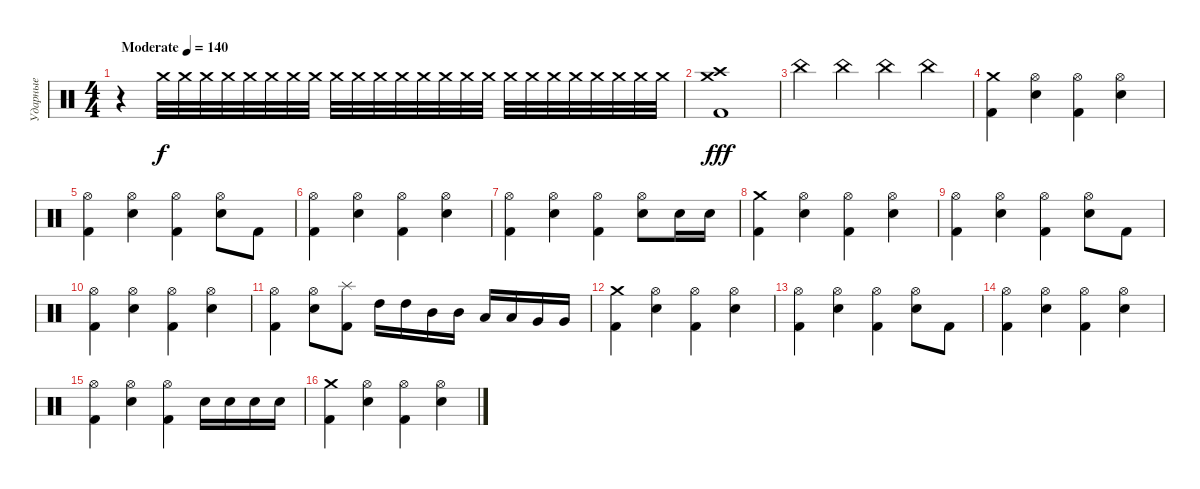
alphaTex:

\track ("Ударные" "Ударные") {instrument percussion}
\staff {score}
\articulation defaults
\ts (4 4)
\tempo (140 "Moderate")
\clef neutral
\ks c
r.4{dy f} "Crash medium (hit)".32 "Crash medium (hit)".32 "Crash medium (hit)".32 "Crash medium (hit)".32 "Crash medium (hit)".32 "Crash medium (hit)".32 "Crash medium (hit)".32 "Crash medium (hit)".32 "Crash medium (hit)".32 "Crash medium (hit)".32 "Crash medium (hit)".32 "Crash medium (hit)".32 "Crash medium (hit)".32 "Crash medium (hit)".32 "Crash medium (hit)".32 "Crash medium (hit)".32 "Crash medium (hit)".32 "Crash medium (hit)".32 "Crash medium (hit)".32 "Crash medium (hit)".32 "Crash medium (hit)".32 "Crash medium (hit)".32 "Crash medium (hit)".32 "Crash medium (hit)".32 |
("Crash medium (hit)" "Crash high (hit)" "Kick (hit) 2").1{dy fff} |
"China (hit)".4 "China (hit)".4 "China (hit)".4 "China (hit)".4 |
("Crash medium (hit)" "Kick (hit) 2").4 ("Hi-Hat (open)" "Electric Snare (hit)").4 ("Hi-Hat (open)" "Kick (hit) 2").4 ("Hi-Hat (open)" "Electric Snare (hit)").4 |
("Hi-Hat (open)" "Kick (hit) 2").4 ("Hi-Hat (open)" "Electric Snare (hit)").4 ("Hi-Hat (open)" "Kick (hit) 2").4 ("Hi-Hat (open)" "Electric Snare (hit)").8 "Kick (hit) 2".8 |
("Hi-Hat (open)" "Kick (hit) 2").4 ("Hi-Hat (open)" "Electric Snare (hit)").4 ("Hi-Hat (open)" "Kick (hit) 2").4 ("Hi-Hat (open)" "Electric Snare (hit)").4 |
("Hi-Hat (open)" "Kick (hit) 2").4 ("Hi-Hat (open)" "Electric Snare (hit)").4 ("Hi-Hat (open)" "Kick (hit) 2").4 ("Hi-Hat (open)" "Electric Snare (hit)").8 "Electric Snare (hit)".16 "Electric Snare (hit)".16 |
("Crash medium (hit)" "Kick (hit) 2").4 ("Hi-Hat (open)" "Electric Snare (hit)").4 ("Hi-Hat (open)" "Kick (hit) 2").4 ("Hi-Hat (open)" "Electric Snare (hit)").4 |
("Hi-Hat (open)" "Kick (hit) 2").4 ("Hi-Hat (open)" "Electric Snare (hit)").4 ("Hi-Hat (open)" "Kick (hit) 2").4 ("Hi-Hat (open)" "Electric Snare (hit)").8 "Kick (hit) 2".8 |
("Hi-Hat (open)" "Kick (hit) 2").4 ("Hi-Hat (open)" "Electric Snare (hit)").4 ("Hi-Hat (open)" "Kick (hit) 2").4 ("Hi-Hat (open)" "Electric Snare (hit)").4 |
("Hi-Hat (open)" "Kick (hit) 2").4 ("Hi-Hat (open)" "Electric Snare (hit)").8 ("Splash (hit)" "Kick (hit) 2").8 "High Tom (hit)".16 "High Tom (hit)".16 "Mid Tom (hit)".16 "Mid Tom (hit)".16 "Low Tom (hit)".16 "Low Tom (hit)".16 "Very Low Tom (hit)".16 "Very Low Tom (hit)".16 |
("Crash medium (hit)" "Kick (hit) 2").4 ("Hi-Hat (open)" "Electric Snare (hit)").4 ("Hi-Hat (open)" "Kick (hit) 2").4 ("Hi-Hat (open)" "Electric Snare (hit)").4 |
("Hi-Hat (open)" "Kick (hit) 2").4 ("Hi-Hat (open)" "Electric Snare (hit)").4 ("Hi-Hat (open)" "Kick (hit) 2").4 ("Hi-Hat (open)" "Electric Snare (hit)").8 "Kick (hit) 2".8 |
("Hi-Hat (open)" "Kick (hit) 2").4 ("Hi-Hat (open)" "Electric Snare (hit)").4 ("Hi-Hat (open)" "Kick (hit) 2").4 ("Hi-Hat (open)" "Electric Snare (hit)").4 |
("Hi-Hat (open)" "Kick (hit) 2").4 ("Hi-Hat (open)" "Electric Snare (hit)").4 ("Hi-Hat (open)" "Kick (hit) 2").4 "Electric Snare (hit)".16 "Electric Snare (hit)".16 "Electric Snare (hit)".16 "Electric Snare (hit)".16 |
("Crash medium (hit)" "Kick (hit) 2").4 ("Hi-Hat (open)" "Electric Snare (hit)").4 ("Hi-Hat (open)" "Kick (hit) 2").4 ("Hi-Hat (open)" "Electric Snare (hit)").4
